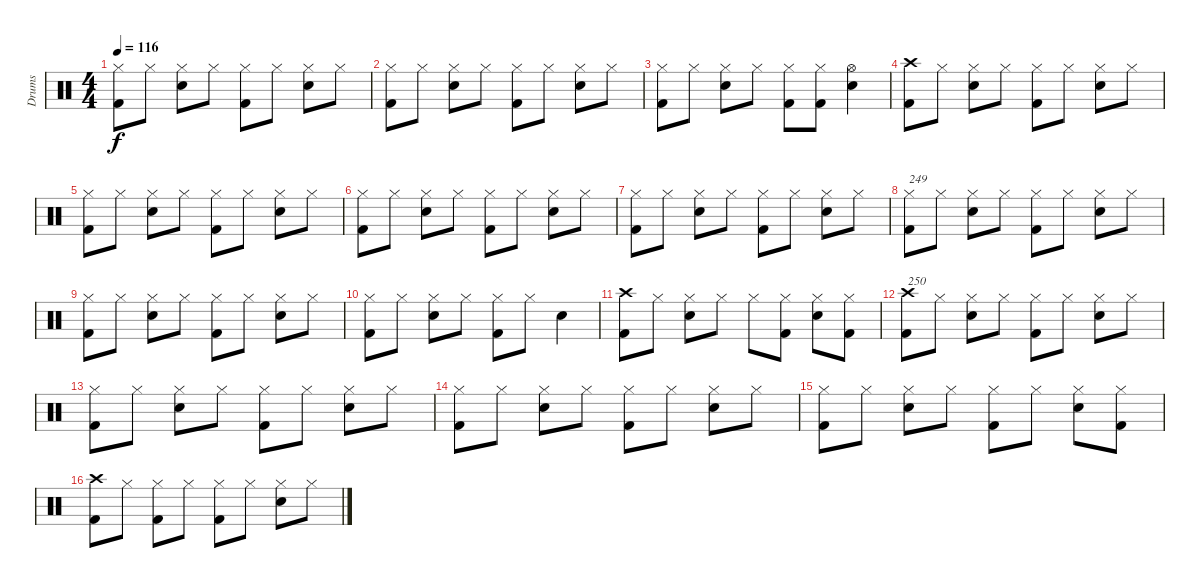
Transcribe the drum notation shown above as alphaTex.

\track ("Drums" "Drums") {instrument percussion}
\staff {score}
\articulation defaults
\ts (4 4)
\tempo 116
\clef neutral
\ks c
("Hi-Hat (closed)" "Kick (hit) 2").8{dy f} "Hi-Hat (closed)".8 ("Hi-Hat (closed)" "Snare (hit) 2").8 "Hi-Hat (closed)".8 ("Hi-Hat (closed)" "Kick (hit) 2").8 "Hi-Hat (closed)".8 ("Hi-Hat (closed)" "Snare (hit) 2").8 "Hi-Hat (closed)".8 |
("Hi-Hat (closed)" "Kick (hit) 2").8 "Hi-Hat (closed)".8 ("Hi-Hat (closed)" "Snare (hit) 2").8 "Hi-Hat (closed)".8 ("Hi-Hat (closed)" "Kick (hit) 2").8 "Hi-Hat (closed)".8 ("Hi-Hat (closed)" "Snare (hit) 2").8 "Hi-Hat (closed)".8 |
("Hi-Hat (closed)" "Kick (hit) 2").8 "Hi-Hat (closed)".8 ("Hi-Hat (closed)" "Snare (hit) 2").8 "Hi-Hat (closed)".8 ("Hi-Hat (closed)" "Kick (hit) 2").8 ("Hi-Hat (closed)" "Kick (hit) 2").8 ("Hi-Hat (open)" "Snare (hit) 2").4 |
("Crash high (hit)" "Kick (hit) 2").8 "Hi-Hat (closed)".8 ("Hi-Hat (closed)" "Snare (hit) 2").8 "Hi-Hat (closed)".8 ("Hi-Hat (closed)" "Kick (hit) 2").8 "Hi-Hat (closed)".8 ("Hi-Hat (closed)" "Snare (hit) 2").8 "Hi-Hat (closed)".8 |
("Hi-Hat (closed)" "Kick (hit) 2").8 "Hi-Hat (closed)".8 ("Hi-Hat (closed)" "Snare (hit) 2").8 "Hi-Hat (closed)".8 ("Hi-Hat (closed)" "Kick (hit) 2").8 "Hi-Hat (closed)".8 ("Hi-Hat (closed)" "Snare (hit) 2").8 "Hi-Hat (closed)".8 |
("Hi-Hat (closed)" "Kick (hit) 2").8 "Hi-Hat (closed)".8 ("Hi-Hat (closed)" "Snare (hit) 2").8 "Hi-Hat (closed)".8 ("Hi-Hat (closed)" "Kick (hit) 2").8 "Hi-Hat (closed)".8 ("Hi-Hat (closed)" "Snare (hit) 2").8 "Hi-Hat (closed)".8 |
("Hi-Hat (closed)" "Kick (hit) 2").8 "Hi-Hat (closed)".8 ("Hi-Hat (closed)" "Snare (hit) 2").8 "Hi-Hat (closed)".8 ("Hi-Hat (closed)" "Kick (hit) 2").8 "Hi-Hat (closed)".8 ("Hi-Hat (closed)" "Snare (hit) 2").8 "Hi-Hat (closed)".8 |
("Hi-Hat (closed)" "Kick (hit) 2").8{txt "249"} "Hi-Hat (closed)".8 ("Hi-Hat (closed)" "Snare (hit) 2").8 "Hi-Hat (closed)".8 ("Hi-Hat (closed)" "Kick (hit) 2").8 "Hi-Hat (closed)".8 ("Hi-Hat (closed)" "Snare (hit) 2").8 "Hi-Hat (closed)".8 |
("Hi-Hat (closed)" "Kick (hit) 2").8 "Hi-Hat (closed)".8 ("Hi-Hat (closed)" "Snare (hit) 2").8 "Hi-Hat (closed)".8 ("Hi-Hat (closed)" "Kick (hit) 2").8 "Hi-Hat (closed)".8 ("Hi-Hat (closed)" "Snare (hit) 2").8 "Hi-Hat (closed)".8 |
("Hi-Hat (closed)" "Kick (hit) 2").8 "Hi-Hat (closed)".8 ("Hi-Hat (closed)" "Snare (hit) 2").8 "Hi-Hat (closed)".8 ("Hi-Hat (closed)" "Kick (hit) 2").8 "Hi-Hat (closed)".8 "Snare (hit) 2".4 |
("Crash high (hit)" "Kick (hit) 2").8 "Hi-Hat (closed)".8 ("Hi-Hat (closed)" "Snare (hit) 2").8 "Hi-Hat (closed)".8 "Hi-Hat (closed)".8 ("Hi-Hat (closed)" "Kick (hit) 2").8 ("Hi-Hat (closed)" "Snare (hit) 2").8 ("Hi-Hat (closed)" "Kick (hit) 2").8 |
("Crash high (hit)" "Kick (hit) 2").8{txt "250"} "Hi-Hat (closed)".8 ("Hi-Hat (closed)" "Snare (hit) 2").8 "Hi-Hat (closed)".8 ("Hi-Hat (closed)" "Kick (hit) 2").8 "Hi-Hat (closed)".8 ("Hi-Hat (closed)" "Snare (hit) 2").8 "Hi-Hat (closed)".8 |
("Hi-Hat (closed)" "Kick (hit) 2").8 "Hi-Hat (closed)".8 ("Hi-Hat (closed)" "Snare (hit) 2").8 "Hi-Hat (closed)".8 ("Hi-Hat (closed)" "Kick (hit) 2").8 "Hi-Hat (closed)".8 ("Hi-Hat (closed)" "Snare (hit) 2").8 "Hi-Hat (closed)".8 |
("Hi-Hat (closed)" "Kick (hit) 2").8 "Hi-Hat (closed)".8 ("Hi-Hat (closed)" "Snare (hit) 2").8 "Hi-Hat (closed)".8 ("Hi-Hat (closed)" "Kick (hit) 2").8 "Hi-Hat (closed)".8 ("Hi-Hat (closed)" "Snare (hit) 2").8 "Hi-Hat (closed)".8 |
("Hi-Hat (closed)" "Kick (hit) 2").8 "Hi-Hat (closed)".8 ("Hi-Hat (closed)" "Snare (hit) 2").8 "Hi-Hat (closed)".8 ("Hi-Hat (closed)" "Kick (hit) 2").8 "Hi-Hat (closed)".8 ("Hi-Hat (closed)" "Snare (hit) 2").8 ("Hi-Hat (closed)" "Kick (hit) 2").8 |
("Crash high (hit)" "Kick (hit) 2").8 "Hi-Hat (closed)".8 ("Hi-Hat (closed)" "Kick (hit) 2").8 "Hi-Hat (closed)".8 ("Hi-Hat (closed)" "Kick (hit) 2").8 "Hi-Hat (closed)".8 ("Hi-Hat (closed)" "Snare (hit) 2").8 "Hi-Hat (closed)".8
